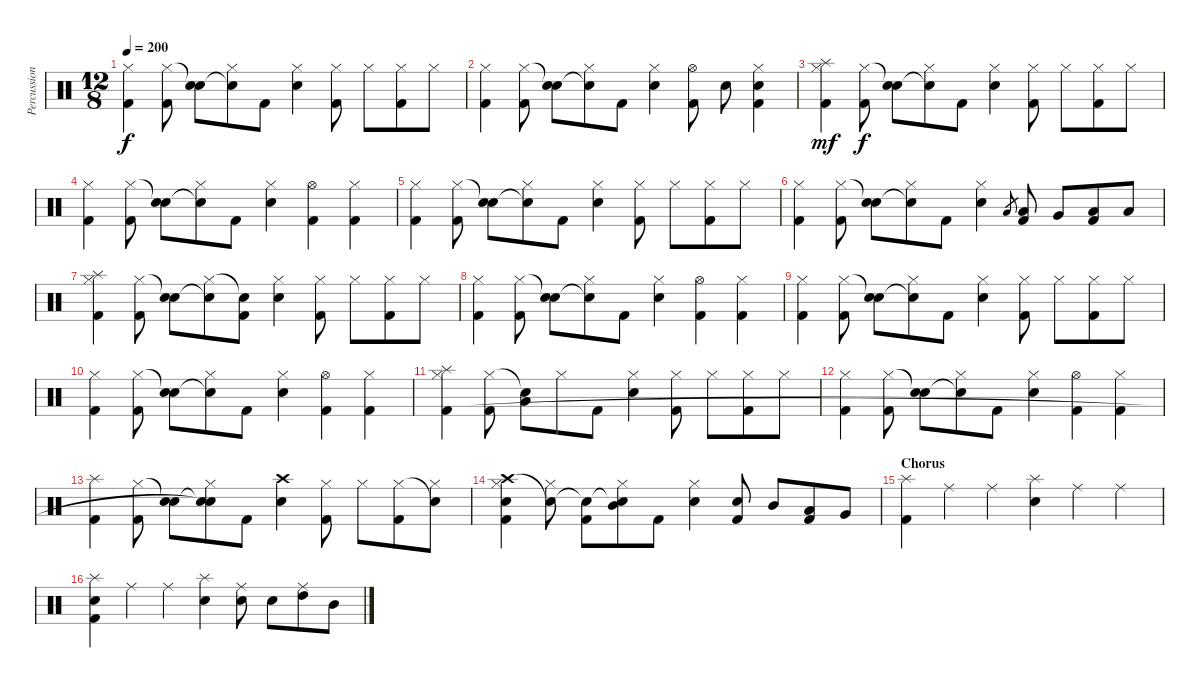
\track ("Percussion" "Percussion") {instrument percussion}
\staff {score}
\articulation defaults
\ts (12 8)
\tempo 200
\clef neutral
\ks c
("Hi-Hat (closed)" "Kick (hit) 2").4{dy f} ("Hi-Hat (closed)" "Kick (hit) 2").8 ("Snare (hit)"{t} "Electric Snare (hit)").8 ("Hi-Hat (closed)" "Electric Snare (hit)"{t}).8 "Kick (hit) 2".8 ("Hi-Hat (closed)" "Electric Snare (hit)").4 ("Hi-Hat (closed)" "Kick (hit) 2").8 "Hi-Hat (closed)".8 ("Hi-Hat (closed)" "Kick (hit) 2").8 "Hi-Hat (closed)".8 |
("Hi-Hat (closed)" "Kick (hit) 2").4 ("Hi-Hat (closed)" "Kick (hit) 2").8 ("Snare (hit)"{t} "Electric Snare (hit)").8 ("Hi-Hat (closed)" "Electric Snare (hit)"{t}).8 "Kick (hit) 2".8 ("Hi-Hat (closed)" "Electric Snare (hit)").4 ("Hi-Hat (open)" "Kick (hit) 2").8 "Electric Snare (hit)".8 ("Hi-Hat (closed)" "Electric Snare (hit)" "Kick (hit) 2").4 |
("Splash (hit)" "Hi-Hat (closed)" "Kick (hit) 2").4{dy mf} ("Hi-Hat (closed)" "Kick (hit) 2").8{dy f} ("Snare (hit)"{t} "Electric Snare (hit)").8 ("Hi-Hat (closed)" "Electric Snare (hit)"{t}).8 "Kick (hit) 2".8 ("Hi-Hat (closed)" "Electric Snare (hit)").4 ("Hi-Hat (closed)" "Kick (hit) 2").8 "Hi-Hat (closed)".8 ("Hi-Hat (closed)" "Kick (hit) 2").8 "Hi-Hat (closed)".8 |
("Hi-Hat (closed)" "Kick (hit) 2").4 ("Hi-Hat (closed)" "Kick (hit) 2").8 ("Snare (hit)"{t} "Electric Snare (hit)").8 ("Hi-Hat (closed)" "Electric Snare (hit)"{t}).8 "Kick (hit) 2".8 ("Hi-Hat (closed)" "Electric Snare (hit)").4 ("Hi-Hat (open)" "Kick (hit) 2").4 ("Hi-Hat (closed)" "Kick (hit) 2").4 |
("Hi-Hat (closed)" "Kick (hit) 2").4 ("Hi-Hat (closed)" "Kick (hit) 2").8 ("Snare (hit)"{t} "Electric Snare (hit)").8 ("Hi-Hat (closed)" "Electric Snare (hit)"{t}).8 "Kick (hit) 2".8 ("Hi-Hat (closed)" "Electric Snare (hit)").4 ("Hi-Hat (closed)" "Kick (hit) 2").8 "Hi-Hat (closed)".8 ("Hi-Hat (closed)" "Kick (hit) 2").8 "Hi-Hat (closed)".8 |
("Hi-Hat (closed)" "Kick (hit) 2").4 ("Hi-Hat (closed)" "Kick (hit) 2").8 ("Snare (hit)"{t} "Electric Snare (hit)").8 ("Hi-Hat (closed)" "Electric Snare (hit)"{t}).8 "Kick (hit) 2".8 ("Hi-Hat (closed)" "Electric Snare (hit)").4 "Low Tom (hit)".8{gr} ("Low Tom (hit)" "Kick (hit) 2").8 "Very Low Tom (hit)".8 ("Low Floor Tom (hit)" "Kick (hit) 2").8 "Low Floor Tom (hit)".8 |
("Splash (hit)" "Hi-Hat (closed)" "Kick (hit) 2").4 ("Hi-Hat (closed)" "Kick (hit) 2").8 ("Snare (hit)"{t} "Electric Snare (hit)").8 ("Hi-Hat (closed)" "Electric Snare (hit)"{t}).8 ("Snare (hit)"{t} "Kick (hit) 2").8 ("Hi-Hat (closed)" "Electric Snare (hit)").4 ("Hi-Hat (closed)" "Kick (hit) 2").8 "Hi-Hat (closed)".8 ("Hi-Hat (closed)" "Kick (hit) 2").8 "Hi-Hat (closed)".8 |
("Hi-Hat (closed)" "Kick (hit) 2").4 ("Hi-Hat (closed)" "Kick (hit) 2").8 ("Snare (hit)"{t} "Electric Snare (hit)").8 ("Hi-Hat (closed)" "Electric Snare (hit)"{t}).8 "Kick (hit) 2".8 ("Hi-Hat (closed)" "Electric Snare (hit)").4 ("Hi-Hat (open)" "Kick (hit) 2").4 ("Hi-Hat (closed)" "Kick (hit) 2").4 |
("Hi-Hat (closed)" "Kick (hit) 2").4 ("Hi-Hat (closed)" "Kick (hit) 2").8 ("Snare (hit)"{t} "Electric Snare (hit)").8 ("Hi-Hat (closed)" "Electric Snare (hit)"{t}).8 "Kick (hit) 2".8 ("Hi-Hat (closed)" "Electric Snare (hit)").4 ("Hi-Hat (closed)" "Kick (hit) 2").8 "Hi-Hat (closed)".8 ("Hi-Hat (closed)" "Kick (hit) 2").8 "Hi-Hat (closed)".8 |
("Hi-Hat (closed)" "Kick (hit) 2").4 ("Hi-Hat (closed)" "Kick (hit) 2").8 ("Snare (hit)"{t} "Electric Snare (hit)").8 ("Hi-Hat (closed)" "Electric Snare (hit)"{t}).8 "Kick (hit) 2".8 ("Hi-Hat (closed)" "Electric Snare (hit)").4 ("Hi-Hat (open)" "Kick (hit) 2").4 ("Hi-Hat (closed)" "Kick (hit) 2").4 |
("Splash (hit)" "Hi-Hat (closed)" "Kick (hit) 2").4 ("Hi-Hat (closed)" "Kick (hit) 2").8 ("Snare (hit)"{t} "Low Tom (hit)").8 "Hi-Hat (closed)".8 "Kick (hit) 2".8 ("Hi-Hat (closed)" "Electric Snare (hit)").4 ("Hi-Hat (closed)" "Kick (hit) 2").8 "Hi-Hat (closed)".8 ("Hi-Hat (closed)" "Kick (hit) 2").8 "Hi-Hat (closed)".8 |
("Hi-Hat (closed)" "Kick (hit) 2").4 ("Hi-Hat (closed)" "Kick (hit) 2").8 ("Snare (hit)"{t} "Electric Snare (hit)").8 ("Hi-Hat (closed)" "Electric Snare (hit)"{t}).8 "Kick (hit) 2".8 ("Hi-Hat (closed)" "Electric Snare (hit)").4 ("Hi-Hat (open)" "Kick (hit) 2").4 ("Hi-Hat (closed)" "Kick (hit) 2").4 |
("Splash (hit)" "Kick (hit) 2").4 ("Hi-Hat (closed)" "Kick (hit) 2").8 ("Snare (hit)"{t} "Electric Snare (hit)").8 ("Snare (hit)"{t} "Hi-Hat (closed)" "Electric Snare (hit)"{t}).8 "Kick (hit) 2".8 ("Crash high (hit)" "Electric Snare (hit)").4 ("Hi-Hat (closed)" "Kick (hit) 2").8 "Hi-Hat (closed)".8 ("Hi-Hat (closed)" "Kick (hit) 2").8 ("Snare (hit)"{t} "Hi-Hat (closed)").8 |
("Crash high (hit)" "Hi-Hat (closed)" "Electric Snare (hit)" "Kick (hit) 2").4 ("Snare (hit)"{t} "Hi-Hat (closed)").8 ("Snare (hit)"{t} "Kick (hit) 2").8 ("Snare (hit)"{t} "Hi-Hat (closed)" "Mid Tom (hit)").8 "Kick (hit) 2".8 ("Hi-Hat (closed)" "Electric Snare (hit)").4 ("Electric Snare (hit)" "Kick (hit) 2").8 "Mid Tom (hit)".8 ("Low Tom (hit)" "Kick (hit) 2").8 "Very Low Tom (hit)".8 |
\section ("" "Chorus")
("Splash (hit)" "Kick (hit) 2").4 "Ride (middle)".4 "Ride (middle)".4 ("Splash (hit)" "Electric Snare (hit)").4 "Ride (middle)".4 "Ride (middle)".4 |
("Splash (hit)" "Electric Snare (hit)" "Kick (hit) 2").4 "Ride (middle)".4 "Ride (middle)".4 ("Splash (hit)" "Electric Snare (hit)").4 ("Ride (middle)" "Electric Snare (hit)").8 "Electric Snare (hit)".8 ("Ride (middle)" "High Tom (hit)").8 "Mid Tom (hit)".8
